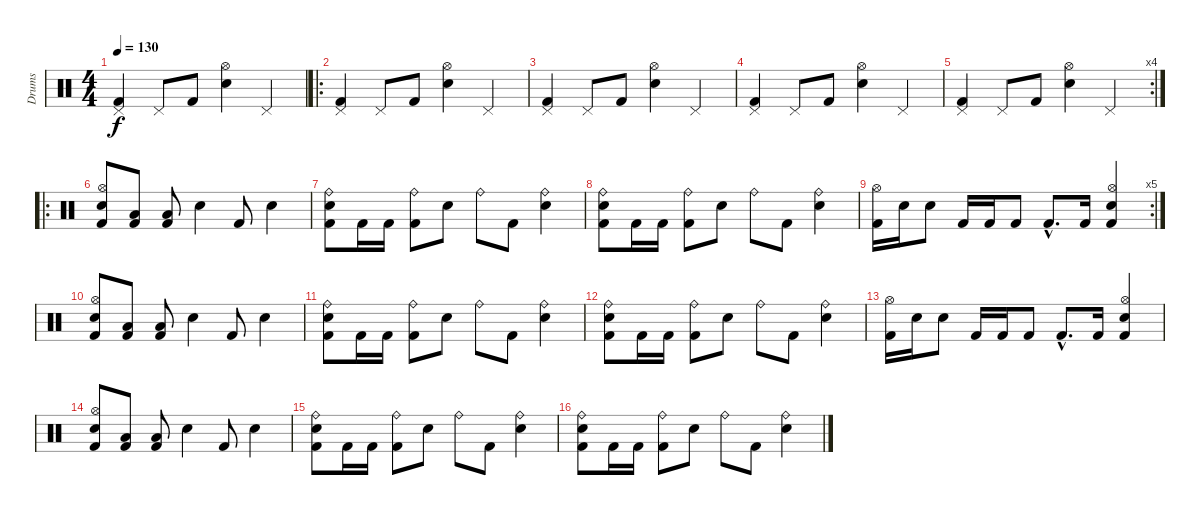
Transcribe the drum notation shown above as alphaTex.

\track ("Drums" "Drums") {instrument percussion}
\staff {score}
\articulation defaults
\ts (4 4)
\tempo 130
\clef neutral
\ks c
("Pedal Hi-Hat (hit)" "Kick (hit) 2").4{dy f} "Pedal Hi-Hat (hit)".8 "Kick (hit) 2".8 ("Hi-Hat (open)" "Electric Snare (hit)").4 "Pedal Hi-Hat (hit)".4 |
\ro
("Pedal Hi-Hat (hit)" "Kick (hit) 2").4 "Pedal Hi-Hat (hit)".8 "Kick (hit) 2".8 ("Hi-Hat (open)" "Electric Snare (hit)").4 "Pedal Hi-Hat (hit)".4 |
("Pedal Hi-Hat (hit)" "Kick (hit) 2").4 "Pedal Hi-Hat (hit)".8 "Kick (hit) 2".8 ("Hi-Hat (open)" "Electric Snare (hit)").4 "Pedal Hi-Hat (hit)".4 |
("Pedal Hi-Hat (hit)" "Kick (hit) 2").4 "Pedal Hi-Hat (hit)".8 "Kick (hit) 2".8 ("Hi-Hat (open)" "Electric Snare (hit)").4 "Pedal Hi-Hat (hit)".4 |
\rc 4
("Pedal Hi-Hat (hit)" "Kick (hit) 2").4 "Pedal Hi-Hat (hit)".8 "Kick (hit) 2".8 ("Hi-Hat (open)" "Electric Snare (hit)").4 "Pedal Hi-Hat (hit)".4 |
\ro
("Hi-Hat (open)" "Electric Snare (hit)" "Kick (hit) 2").8 ("Low Floor Tom (hit)" "Kick (hit) 2").8 ("Low Floor Tom (hit)" "Kick (hit) 2").8 "Electric Snare (hit)".4 "Kick (hit) 2".8 "Electric Snare (hit)".4 |
("Ride (bell)" "Electric Snare (hit)" "Kick (hit) 2").8 "Kick (hit) 2".16 "Kick (hit) 2".16 ("Ride (bell)" "Kick (hit) 2").8 "Electric Snare (hit)".8 "Ride (bell)".8 "Kick (hit) 2".8 ("Ride (bell)" "Electric Snare (hit)").4 |
("Ride (bell)" "Electric Snare (hit)" "Kick (hit) 2").8 "Kick (hit) 2".16 "Kick (hit) 2".16 ("Ride (bell)" "Kick (hit) 2").8 "Electric Snare (hit)".8 "Ride (bell)".8 "Kick (hit) 2".8 ("Ride (bell)" "Electric Snare (hit)").4 |
\rc 5
("Hi-Hat (open)" "Kick (hit) 2").16 "Electric Snare (hit)".16 "Electric Snare (hit)".8 "Kick (hit) 2".16 "Kick (hit) 2".16 "Kick (hit) 2".8 "Kick (hit) 2"{hac}.8{d} "Kick (hit) 2".16 ("Hi-Hat (open)" "Kick (hit) 2" "Electric Snare (hit)").4 |
("Hi-Hat (open)" "Electric Snare (hit)" "Kick (hit) 2").8 ("Low Floor Tom (hit)" "Kick (hit) 2").8 ("Low Floor Tom (hit)" "Kick (hit) 2").8 "Electric Snare (hit)".4 "Kick (hit) 2".8 "Electric Snare (hit)".4 |
("Ride (bell)" "Electric Snare (hit)" "Kick (hit) 2").8 "Kick (hit) 2".16 "Kick (hit) 2".16 ("Ride (bell)" "Kick (hit) 2").8 "Electric Snare (hit)".8 "Ride (bell)".8 "Kick (hit) 2".8 ("Ride (bell)" "Electric Snare (hit)").4 |
("Ride (bell)" "Electric Snare (hit)" "Kick (hit) 2").8 "Kick (hit) 2".16 "Kick (hit) 2".16 ("Ride (bell)" "Kick (hit) 2").8 "Electric Snare (hit)".8 "Ride (bell)".8 "Kick (hit) 2".8 ("Ride (bell)" "Electric Snare (hit)").4 |
("Hi-Hat (open)" "Kick (hit) 2").16 "Electric Snare (hit)".16 "Electric Snare (hit)".8 "Kick (hit) 2".16 "Kick (hit) 2".16 "Kick (hit) 2".8 "Kick (hit) 2"{hac}.8{d} "Kick (hit) 2".16 ("Hi-Hat (open)" "Kick (hit) 2" "Electric Snare (hit)").4 |
("Hi-Hat (open)" "Electric Snare (hit)" "Kick (hit) 2").8 ("Low Floor Tom (hit)" "Kick (hit) 2").8 ("Low Floor Tom (hit)" "Kick (hit) 2").8 "Electric Snare (hit)".4 "Kick (hit) 2".8 "Electric Snare (hit)".4 |
("Ride (bell)" "Electric Snare (hit)" "Kick (hit) 2").8 "Kick (hit) 2".16 "Kick (hit) 2".16 ("Ride (bell)" "Kick (hit) 2").8 "Electric Snare (hit)".8 "Ride (bell)".8 "Kick (hit) 2".8 ("Ride (bell)" "Electric Snare (hit)").4 |
("Ride (bell)" "Electric Snare (hit)" "Kick (hit) 2").8 "Kick (hit) 2".16 "Kick (hit) 2".16 ("Ride (bell)" "Kick (hit) 2").8 "Electric Snare (hit)".8 "Ride (bell)".8 "Kick (hit) 2".8 ("Ride (bell)" "Electric Snare (hit)").4
